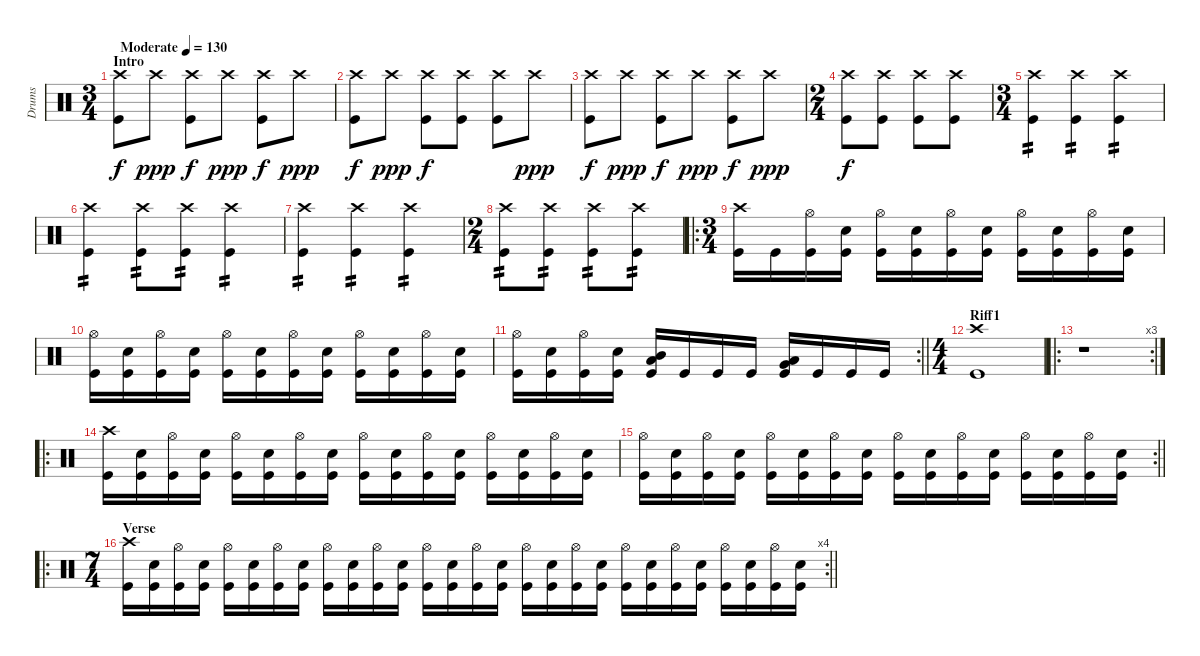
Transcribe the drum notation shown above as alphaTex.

\track ("Drums" "Drums") {instrument percussion}
\staff {score}
\articulation defaults
\ts (3 4)
\section ("" "Intro")
\tempo (130 "Moderate")
\clef neutral
\ks c
("Crash high (hit)" "Kick (hit)").8{dy f} "Crash high (hit)".8{dy ppp} ("Crash high (hit)" "Kick (hit)").8{dy f} "Crash high (hit)".8{dy ppp} ("Crash high (hit)" "Kick (hit)").8{dy f} "Crash high (hit)".8{dy ppp} |
("Crash high (hit)" "Kick (hit)").8{dy f} "Crash high (hit)".8{dy ppp} ("Crash high (hit)" "Kick (hit)").8{dy f} ("Crash high (hit)" "Kick (hit)").8 ("Crash high (hit)" "Kick (hit)").8 "Crash high (hit)".8{dy ppp} |
("Crash high (hit)" "Kick (hit)").8{dy f} "Crash high (hit)".8{dy ppp} ("Crash high (hit)" "Kick (hit)").8{dy f} "Crash high (hit)".8{dy ppp} ("Crash high (hit)" "Kick (hit)").8{dy f} "Crash high (hit)".8{dy ppp} |
\ts (2 4)
("Crash high (hit)" "Kick (hit)").8{dy f} ("Crash high (hit)" "Kick (hit)").8 ("Crash high (hit)" "Kick (hit)").8 ("Crash high (hit)" "Kick (hit)").8 |
\ts (3 4)
("Crash high (hit)" "Kick (hit)").4{tp 2} ("Crash high (hit)" "Kick (hit)").4{tp 2} ("Crash high (hit)" "Kick (hit)").4{tp 2} |
("Crash high (hit)" "Kick (hit)").4{tp 2} ("Crash high (hit)" "Kick (hit)").8{tp 2} ("Crash high (hit)" "Kick (hit)").8{tp 2} ("Crash high (hit)" "Kick (hit)").4{tp 2} |
("Crash high (hit)" "Kick (hit)").4{tp 2} ("Crash high (hit)" "Kick (hit)").4{tp 2} ("Crash high (hit)" "Kick (hit)").4{tp 2} |
\ts (2 4)
("Crash high (hit)" "Kick (hit)").8{tp 2} ("Crash high (hit)" "Kick (hit)").8{tp 2} ("Crash high (hit)" "Kick (hit)").8{tp 2} ("Crash high (hit)" "Kick (hit)").8{tp 2} |
\ro
\ts (3 4)
("Crash high (hit)" "Kick (hit)").16 "Kick (hit)".16 ("Hi-Hat (open)" "Kick (hit)").16 ("Electric Snare (hit)" "Kick (hit)").16 ("Hi-Hat (open)" "Kick (hit)").16 ("Electric Snare (hit)" "Kick (hit)").16 ("Hi-Hat (open)" "Kick (hit)").16 ("Electric Snare (hit)" "Kick (hit)").16 ("Hi-Hat (open)" "Kick (hit)").16 ("Electric Snare (hit)" "Kick (hit)").16 ("Hi-Hat (open)" "Kick (hit)").16 ("Electric Snare (hit)" "Kick (hit)").16 |
("Hi-Hat (open)" "Kick (hit)").16 ("Electric Snare (hit)" "Kick (hit)").16 ("Hi-Hat (open)" "Kick (hit)").16 ("Electric Snare (hit)" "Kick (hit)").16 ("Hi-Hat (open)" "Kick (hit)").16 ("Electric Snare (hit)" "Kick (hit)").16 ("Hi-Hat (open)" "Kick (hit)").16 ("Electric Snare (hit)" "Kick (hit)").16 ("Hi-Hat (open)" "Kick (hit)").16 ("Electric Snare (hit)" "Kick (hit)").16 ("Hi-Hat (open)" "Kick (hit)").16 ("Electric Snare (hit)" "Kick (hit)").16 |
\rc 2
\barLineRight lightlight
("Hi-Hat (open)" "Kick (hit)").16 ("Electric Snare (hit)" "Kick (hit)").16 ("Hi-Hat (open)" "Kick (hit)").16 ("Electric Snare (hit)" "Kick (hit)").16 ("Mid Tom (hit)" "Low Tom (hit)" "Kick (hit)").16 "Kick (hit)".16 "Kick (hit)".16 "Kick (hit)".16 ("Low Tom (hit)" "Very Low Tom (hit)" "Kick (hit)").16 "Kick (hit)".16 "Kick (hit)".16 "Kick (hit)".16 |
\ts (4 4)
\section ("" "Riff1")
("Crash high (hit)" "Kick (hit)").1 |
\ro
\rc 3
r.1 |
\ro
("Crash high (hit)" "Kick (hit)").16 ("Electric Snare (hit)" "Kick (hit)").16 ("Hi-Hat (open)" "Kick (hit)").16 ("Electric Snare (hit)" "Kick (hit)").16 ("Hi-Hat (open)" "Kick (hit)").16 ("Electric Snare (hit)" "Kick (hit)").16 ("Hi-Hat (open)" "Kick (hit)").16 ("Electric Snare (hit)" "Kick (hit)").16 ("Hi-Hat (open)" "Kick (hit)").16 ("Electric Snare (hit)" "Kick (hit)").16 ("Hi-Hat (open)" "Kick (hit)").16 ("Electric Snare (hit)" "Kick (hit)").16 ("Hi-Hat (open)" "Kick (hit)").16 ("Electric Snare (hit)" "Kick (hit)").16 ("Hi-Hat (open)" "Kick (hit)").16 ("Electric Snare (hit)" "Kick (hit)").16 |
\rc 2
\barLineRight lightlight
("Hi-Hat (open)" "Kick (hit)").16 ("Electric Snare (hit)" "Kick (hit)").16 ("Hi-Hat (open)" "Kick (hit)").16 ("Electric Snare (hit)" "Kick (hit)").16 ("Hi-Hat (open)" "Kick (hit)").16 ("Electric Snare (hit)" "Kick (hit)").16 ("Hi-Hat (open)" "Kick (hit)").16 ("Electric Snare (hit)" "Kick (hit)").16 ("Hi-Hat (open)" "Kick (hit)").16 ("Electric Snare (hit)" "Kick (hit)").16 ("Hi-Hat (open)" "Kick (hit)").16 ("Electric Snare (hit)" "Kick (hit)").16 ("Hi-Hat (open)" "Kick (hit)").16 ("Electric Snare (hit)" "Kick (hit)").16 ("Hi-Hat (open)" "Kick (hit)").16 ("Electric Snare (hit)" "Kick (hit)").16 |
\ro
\rc 4
\ts (7 4)
\section ("" "Verse")
\barLineRight lightlight
("Crash high (hit)" "Kick (hit)").16 ("Electric Snare (hit)" "Kick (hit)").16 ("Hi-Hat (open)" "Kick (hit)").16 ("Electric Snare (hit)" "Kick (hit)").16 ("Hi-Hat (open)" "Kick (hit)").16 ("Electric Snare (hit)" "Kick (hit)").16 ("Hi-Hat (open)" "Kick (hit)").16 ("Electric Snare (hit)" "Kick (hit)").16 ("Hi-Hat (open)" "Kick (hit)").16 ("Electric Snare (hit)" "Kick (hit)").16 ("Hi-Hat (open)" "Kick (hit)").16 ("Electric Snare (hit)" "Kick (hit)").16 ("Hi-Hat (open)" "Kick (hit)").16 ("Electric Snare (hit)" "Kick (hit)").16 ("Hi-Hat (open)" "Kick (hit)").16 ("Electric Snare (hit)" "Kick (hit)").16 ("Hi-Hat (open)" "Kick (hit)").16 ("Electric Snare (hit)" "Kick (hit)").16 ("Hi-Hat (open)" "Kick (hit)").16 ("Electric Snare (hit)" "Kick (hit)").16 ("Hi-Hat (open)" "Kick (hit)").16 ("Electric Snare (hit)" "Kick (hit)").16 ("Hi-Hat (open)" "Kick (hit)").16 ("Electric Snare (hit)" "Kick (hit)").16 ("Hi-Hat (open)" "Kick (hit)").16 ("Electric Snare (hit)" "Kick (hit)").16 ("Hi-Hat (open)" "Kick (hit)").16 ("Electric Snare (hit)" "Kick (hit)").16
